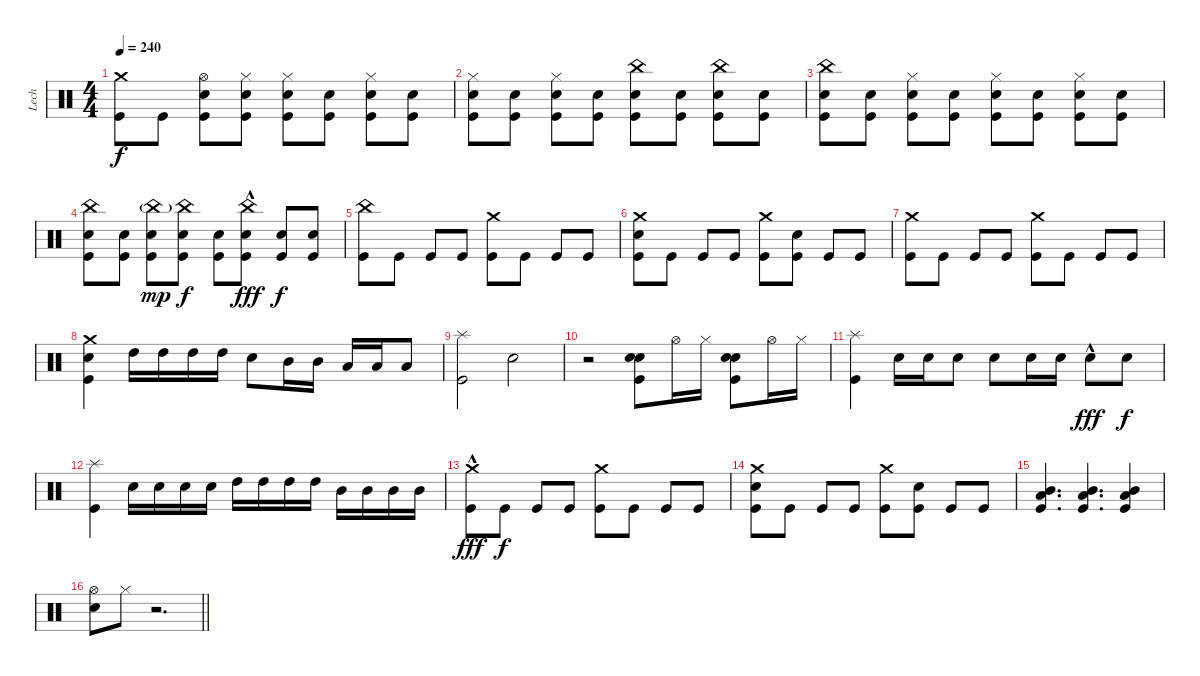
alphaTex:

\track ("Lech" "Lech") {instrument percussion}
\staff {score}
\articulation defaults
\ts (4 4)
\tempo 240
\clef neutral
\ks c
("Crash medium (hit)" "Kick (hit)").8{dy f} "Kick (hit)".8 ("Hi-Hat (open)" "Snare (hit) 2" "Kick (hit)").8 ("Hi-Hat (closed)" "Snare (hit) 2" "Kick (hit)").8 ("Hi-Hat (closed)" "Snare (hit) 2" "Kick (hit)").8 ("Snare (hit) 2" "Kick (hit)").8 ("Hi-Hat (closed)" "Snare (hit) 2" "Kick (hit)").8 ("Snare (hit) 2" "Kick (hit)").8 |
("Hi-Hat (closed)" "Snare (hit) 2" "Kick (hit)").8 ("Snare (hit) 2" "Kick (hit)").8 ("Hi-Hat (closed)" "Snare (hit) 2" "Kick (hit)").8 ("Snare (hit) 2" "Kick (hit)").8 ("China (hit)" "Snare (hit) 2" "Kick (hit)").8 ("Snare (hit) 2" "Kick (hit)").8 ("China (hit)" "Snare (hit) 2" "Kick (hit)").8 ("Snare (hit) 2" "Kick (hit)").8 |
("China (hit)" "Snare (hit) 2" "Kick (hit)").8 ("Snare (hit) 2" "Kick (hit)").8 ("Hi-Hat (closed)" "Snare (hit) 2" "Kick (hit)").8 ("Snare (hit) 2" "Kick (hit)").8 ("Hi-Hat (closed)" "Snare (hit) 2" "Kick (hit)").8 ("Snare (hit) 2" "Kick (hit)").8 ("Hi-Hat (closed)" "Snare (hit) 2" "Kick (hit)").8 ("Snare (hit) 2" "Kick (hit)").8 |
("China (hit)" "Snare (hit) 2" "Kick (hit)").8 ("Snare (hit) 2" "Kick (hit)").8 ("China (hit)"{g} "Snare (hit) 2" "Kick (hit)").8{dy mp} ("China (hit)" "Snare (hit) 2" "Kick (hit)").8{dy f} ("Snare (hit) 2" "Kick (hit)").8 ("China (hit)"{hac} "Snare (hit) 2" "Kick (hit)").8{dy fff} ("Snare (hit) 2" "Kick (hit)").8{dy f} ("Snare (hit) 2" "Kick (hit)").8 |
("China (hit)" "Kick (hit)").8 "Kick (hit)".8 "Kick (hit)".8 "Kick (hit)".8 ("Crash medium (hit)" "Kick (hit)").8 "Kick (hit)".8 "Kick (hit)".8 "Kick (hit)".8 |
("Crash medium (hit)" "Snare (hit) 2" "Kick (hit)").8 "Kick (hit)".8 "Kick (hit)".8 "Kick (hit)".8 ("Crash medium (hit)" "Kick (hit)").8 ("Snare (hit) 2" "Kick (hit)").8 "Kick (hit)".8 "Kick (hit)".8 |
("Crash medium (hit)" "Kick (hit)").8 "Kick (hit)".8 "Kick (hit)".8 "Kick (hit)".8 ("Crash medium (hit)" "Kick (hit)").8 "Kick (hit)".8 "Kick (hit)".8 "Kick (hit)".8 |
("Crash medium (hit)" "Snare (hit) 2" "Kick (hit)").4 "High Tom (hit)".16 "High Tom (hit)".16 "High Tom (hit)".16 "High Tom (hit)".16 "Snare (hit) 2".8 "Mid Tom (hit)".16 "Mid Tom (hit)".16 "Low Tom (hit)".16 "Low Tom (hit)".16 "Low Tom (hit)".8 |
("Splash (hit)" "Kick (hit)").2 "Snare (hit)".2{volume 0} |
r.2 ("Electric Snare (hit)" "Snare (hit) 2" "Kick (hit)").8{volume 13} "Hi-Hat (open)".16 "Hi-Hat (closed)".16 ("Electric Snare (hit)" "Snare (hit) 2" "Kick (hit)").8 "Hi-Hat (open)".16 "Hi-Hat (closed)".16 |
("Splash (hit)" "Kick (hit)").4 "Snare (hit) 2".16 "Snare (hit) 2".16 "Snare (hit) 2".8 "Snare (hit) 2".8 "Snare (hit) 2".16 "Snare (hit) 2".16 "Electric Snare (hit)"{hac}.8{dy fff} "Snare (hit) 2".8{dy f} |
("Splash (hit)" "Kick (hit)").4 "Snare (hit) 2".16 "Snare (hit) 2".16 "Snare (hit) 2".16 "Snare (hit) 2".16 "High Tom (hit)".16 "High Tom (hit)".16 "High Tom (hit)".16 "High Tom (hit)".16 "Mid Tom (hit)".16 "Mid Tom (hit)".16 "Mid Tom (hit)".16 "Mid Tom (hit)".16 |
("Crash medium (hit)"{hac} "Kick (hit)").8{dy fff} "Kick (hit)".8{dy f} "Kick (hit)".8 "Kick (hit)".8 ("Crash medium (hit)" "Kick (hit)").8 "Kick (hit)".8 "Kick (hit)".8 "Kick (hit)".8 |
("Crash medium (hit)" "Snare (hit) 2" "Kick (hit)").8 "Kick (hit)".8 "Kick (hit)".8 "Kick (hit)".8 ("Crash medium (hit)" "Kick (hit)").8 ("Snare (hit) 2" "Kick (hit)").8 "Kick (hit)".8 "Kick (hit)".8 |
("Mid Tom (hit)" "Low Tom (hit)" "Kick (hit)").4{d} ("Mid Tom (hit)" "Low Tom (hit)" "Kick (hit)").4{d} ("Mid Tom (hit)" "Low Tom (hit)" "Kick (hit)").4 |
\barLineRight lightlight
("Hi-Hat (open)" "Snare (hit) 2").8 "Hi-Hat (closed)".8 r.2{d}
